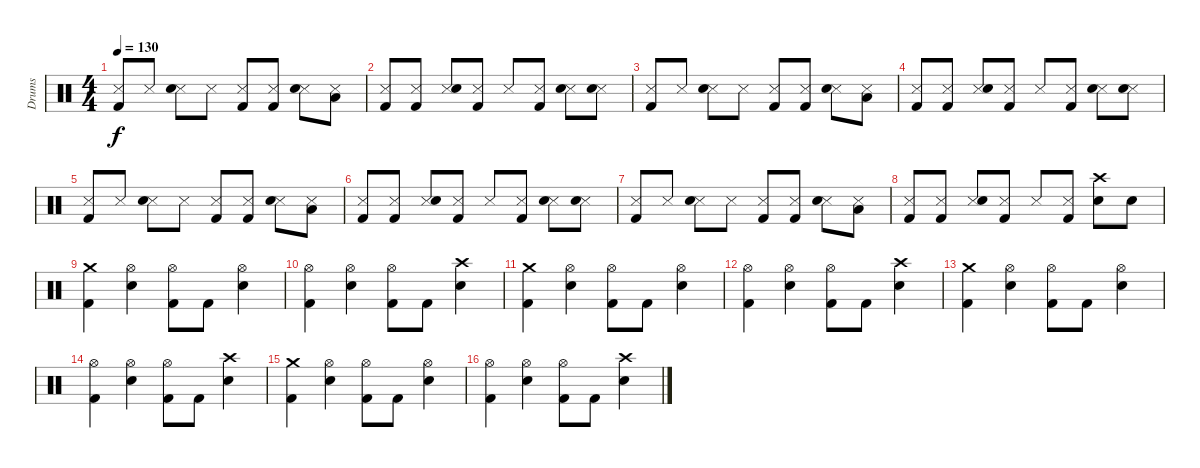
\track ("Drums" "Drums") {instrument percussion}
\staff {score}
\articulation defaults
\ts (4 4)
\tempo 130
\clef neutral
\ks c
("Snare (side stick) 3" "Kick (hit) 2").8{dy f} "Snare (side stick) 3".8 ("Snare (side stick) 3" "Snare (hit) 2").8 "Snare (side stick) 3".8 ("Snare (side stick) 3" "Kick (hit) 2").8 ("Snare (side stick) 3" "Kick (hit) 2").8 ("Snare (side stick) 3" "Snare (hit) 2").8 ("Snare (side stick) 3" "Low Tom (hit)").8 |
("Snare (side stick) 3" "Kick (hit) 2").8 ("Snare (side stick) 3" "Kick (hit) 2").8 ("Snare (side stick) 3" "Snare (hit) 2").8 ("Snare (side stick) 3" "Kick (hit) 2").8 "Snare (side stick) 3".8 ("Snare (side stick) 3" "Kick (hit) 2").8 ("Snare (side stick) 3" "Snare (hit) 2").8 ("Snare (side stick) 3" "Snare (hit) 2").8 |
("Snare (side stick) 3" "Kick (hit) 2").8 "Snare (side stick) 3".8 ("Snare (side stick) 3" "Snare (hit) 2").8 "Snare (side stick) 3".8 ("Snare (side stick) 3" "Kick (hit) 2").8 ("Snare (side stick) 3" "Kick (hit) 2").8 ("Snare (side stick) 3" "Snare (hit) 2").8 ("Snare (side stick) 3" "Low Tom (hit)").8 |
("Snare (side stick) 3" "Kick (hit) 2").8 ("Snare (side stick) 3" "Kick (hit) 2").8 ("Snare (side stick) 3" "Snare (hit) 2").8 ("Snare (side stick) 3" "Kick (hit) 2").8 "Snare (side stick) 3".8 ("Snare (side stick) 3" "Kick (hit) 2").8 ("Snare (side stick) 3" "Snare (hit) 2").8 ("Snare (side stick) 3" "Snare (hit) 2").8 |
("Snare (side stick) 3" "Kick (hit) 2").8 "Snare (side stick) 3".8 ("Snare (side stick) 3" "Snare (hit) 2").8 "Snare (side stick) 3".8 ("Snare (side stick) 3" "Kick (hit) 2").8 ("Snare (side stick) 3" "Kick (hit) 2").8 ("Snare (side stick) 3" "Snare (hit) 2").8 ("Snare (side stick) 3" "Low Tom (hit)").8 |
("Snare (side stick) 3" "Kick (hit) 2").8 ("Snare (side stick) 3" "Kick (hit) 2").8 ("Snare (side stick) 3" "Snare (hit) 2").8 ("Snare (side stick) 3" "Kick (hit) 2").8 "Snare (side stick) 3".8 ("Snare (side stick) 3" "Kick (hit) 2").8 ("Snare (side stick) 3" "Snare (hit) 2").8 ("Snare (side stick) 3" "Snare (hit) 2").8 |
("Snare (side stick) 3" "Kick (hit) 2").8 "Snare (side stick) 3".8 ("Snare (side stick) 3" "Snare (hit) 2").8 "Snare (side stick) 3".8 ("Snare (side stick) 3" "Kick (hit) 2").8 ("Snare (side stick) 3" "Kick (hit) 2").8 ("Snare (side stick) 3" "Snare (hit) 2").8 ("Snare (side stick) 3" "Low Tom (hit)").8 |
("Snare (side stick) 3" "Kick (hit) 2").8 ("Snare (side stick) 3" "Kick (hit) 2").8 ("Snare (side stick) 3" "Snare (hit) 2").8 ("Snare (side stick) 3" "Kick (hit) 2").8 "Snare (side stick) 3".8 ("Snare (side stick) 3" "Kick (hit) 2").8 ("Crash high (hit)" "Snare (hit) 2").8 "Snare (hit) 2".8 |
("Crash medium (hit)" "Kick (hit) 2").4 ("Hi-Hat (open)" "Snare (hit) 2").4 ("Hi-Hat (open)" "Kick (hit) 2").8 "Kick (hit) 2".8 ("Hi-Hat (open)" "Snare (hit) 2").4 |
("Hi-Hat (open)" "Kick (hit) 2").4 ("Hi-Hat (open)" "Snare (hit) 2").4 ("Hi-Hat (open)" "Kick (hit) 2").8 "Kick (hit) 2".8 ("Crash high (hit)" "Snare (hit) 2").4 |
("Crash medium (hit)" "Kick (hit) 2").4 ("Hi-Hat (open)" "Snare (hit) 2").4 ("Hi-Hat (open)" "Kick (hit) 2").8 "Kick (hit) 2".8 ("Hi-Hat (open)" "Snare (hit) 2").4 |
("Hi-Hat (open)" "Kick (hit) 2").4 ("Hi-Hat (open)" "Snare (hit) 2").4 ("Hi-Hat (open)" "Kick (hit) 2").8 "Kick (hit) 2".8 ("Crash high (hit)" "Snare (hit) 2").4 |
("Crash medium (hit)" "Kick (hit) 2").4 ("Hi-Hat (open)" "Snare (hit) 2").4 ("Hi-Hat (open)" "Kick (hit) 2").8 "Kick (hit) 2".8 ("Hi-Hat (open)" "Snare (hit) 2").4 |
("Hi-Hat (open)" "Kick (hit) 2").4 ("Hi-Hat (open)" "Snare (hit) 2").4 ("Hi-Hat (open)" "Kick (hit) 2").8 "Kick (hit) 2".8 ("Crash high (hit)" "Snare (hit) 2").4 |
("Crash medium (hit)" "Kick (hit) 2").4 ("Hi-Hat (open)" "Snare (hit) 2").4 ("Hi-Hat (open)" "Kick (hit) 2").8 "Kick (hit) 2".8 ("Hi-Hat (open)" "Snare (hit) 2").4 |
("Hi-Hat (open)" "Kick (hit) 2").4 ("Hi-Hat (open)" "Snare (hit) 2").4 ("Hi-Hat (open)" "Kick (hit) 2").8 "Kick (hit) 2".8 ("Crash high (hit)" "Snare (hit) 2").4
